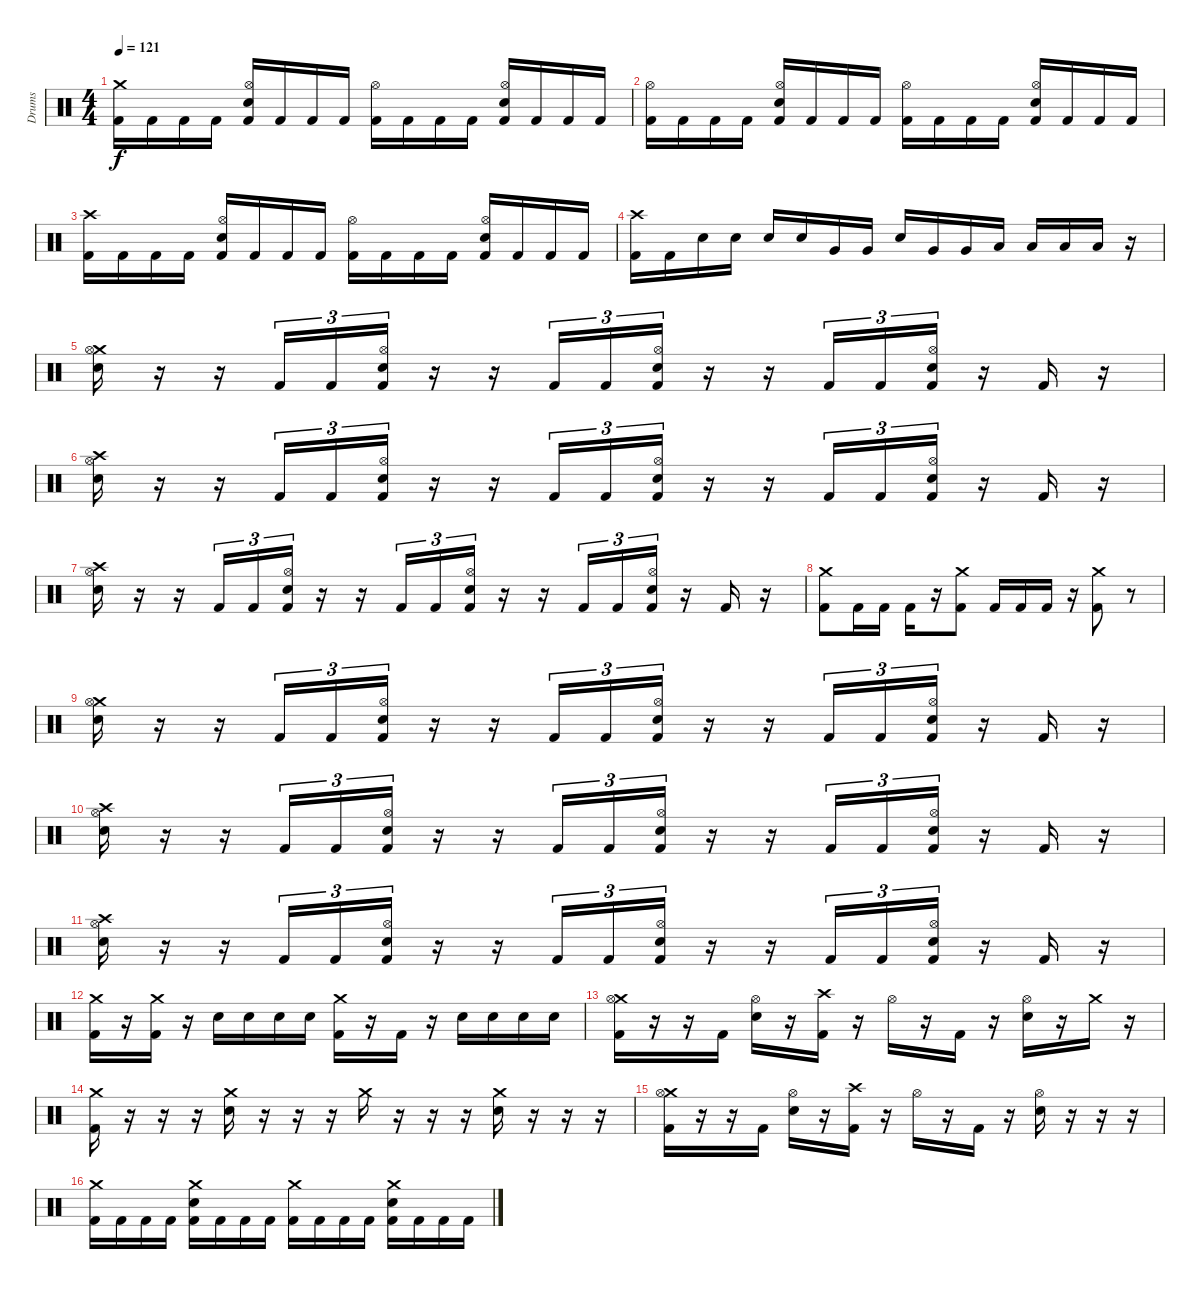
\track ("Drums" "Drums") {instrument percussion}
\staff {score}
\articulation defaults
\ts (4 4)
\tempo 121
\clef neutral
\ks c
("Crash medium (hit)" "Kick (hit) 2").16{dy f} "Kick (hit) 2".16 "Kick (hit) 2".16 "Kick (hit) 2".16 ("Hi-Hat (open)" "Electric Snare (hit)" "Kick (hit) 2").16 "Kick (hit) 2".16 "Kick (hit) 2".16 "Kick (hit) 2".16 ("Hi-Hat (open)" "Kick (hit) 2").16 "Kick (hit) 2".16 "Kick (hit) 2".16 "Kick (hit) 2".16 ("Hi-Hat (open)" "Electric Snare (hit)" "Kick (hit) 2").16 "Kick (hit) 2".16 "Kick (hit) 2".16 "Kick (hit) 2".16 |
("Hi-Hat (open)" "Kick (hit) 2").16 "Kick (hit) 2".16 "Kick (hit) 2".16 "Kick (hit) 2".16 ("Hi-Hat (open)" "Electric Snare (hit)" "Kick (hit) 2").16 "Kick (hit) 2".16 "Kick (hit) 2".16 "Kick (hit) 2".16 ("Hi-Hat (open)" "Kick (hit) 2").16 "Kick (hit) 2".16 "Kick (hit) 2".16 "Kick (hit) 2".16 ("Hi-Hat (open)" "Electric Snare (hit)" "Kick (hit) 2").16 "Kick (hit) 2".16 "Kick (hit) 2".16 "Kick (hit) 2".16 |
("Crash high (hit)" "Kick (hit) 2").16 "Kick (hit) 2".16 "Kick (hit) 2".16 "Kick (hit) 2".16 ("Hi-Hat (open)" "Electric Snare (hit)" "Kick (hit) 2").16 "Kick (hit) 2".16 "Kick (hit) 2".16 "Kick (hit) 2".16 ("Hi-Hat (open)" "Kick (hit) 2").16 "Kick (hit) 2".16 "Kick (hit) 2".16 "Kick (hit) 2".16 ("Hi-Hat (open)" "Electric Snare (hit)" "Kick (hit) 2").16 "Kick (hit) 2".16 "Kick (hit) 2".16 "Kick (hit) 2".16 |
("Crash high (hit)" "Kick (hit) 2").16 "Kick (hit) 2".16 "Electric Snare (hit)".16 "Electric Snare (hit)".16 "Electric Snare (hit)".16 "Electric Snare (hit)".16 "Very Low Tom (hit)".16 "Very Low Tom (hit)".16 "Electric Snare (hit)".16 "Very Low Tom (hit)".16 "Very Low Tom (hit)".16 "Low Tom (hit)".16 "Low Tom (hit)".16 "Low Tom (hit)".16 "Low Tom (hit)".16 r.16 |
("Crash medium (hit)" "Hi-Hat (open)" "Electric Snare (hit)").16 r.16 r.16 "Kick (hit) 2".16{tu (3 2)} "Kick (hit) 2".16{tu (3 2)} ("Hi-Hat (open)" "Electric Snare (hit)" "Kick (hit) 2").16{tu (3 2)} r.16 r.16 "Kick (hit) 2".16{tu (3 2)} "Kick (hit) 2".16{tu (3 2)} ("Hi-Hat (open)" "Electric Snare (hit)" "Kick (hit) 2").16{tu (3 2)} r.16 r.16 "Kick (hit) 2".16{tu (3 2)} "Kick (hit) 2".16{tu (3 2)} ("Hi-Hat (open)" "Electric Snare (hit)" "Kick (hit) 2").16{tu (3 2)} r.16 "Kick (hit) 2".16 r.16 |
("Crash high (hit)" "Hi-Hat (open)" "Electric Snare (hit)").16 r.16 r.16 "Kick (hit) 2".16{tu (3 2)} "Kick (hit) 2".16{tu (3 2)} ("Hi-Hat (open)" "Electric Snare (hit)" "Kick (hit) 2").16{tu (3 2)} r.16 r.16 "Kick (hit) 2".16{tu (3 2)} "Kick (hit) 2".16{tu (3 2)} ("Hi-Hat (open)" "Electric Snare (hit)" "Kick (hit) 2").16{tu (3 2)} r.16 r.16 "Kick (hit) 2".16{tu (3 2)} "Kick (hit) 2".16{tu (3 2)} ("Hi-Hat (open)" "Electric Snare (hit)" "Kick (hit) 2").16{tu (3 2)} r.16 "Kick (hit) 2".16 r.16 |
("Crash high (hit)" "Hi-Hat (open)" "Electric Snare (hit)").16 r.16 r.16 "Kick (hit) 2".16{tu (3 2)} "Kick (hit) 2".16{tu (3 2)} ("Hi-Hat (open)" "Electric Snare (hit)" "Kick (hit) 2").16{tu (3 2)} r.16 r.16 "Kick (hit) 2".16{tu (3 2)} "Kick (hit) 2".16{tu (3 2)} ("Hi-Hat (open)" "Electric Snare (hit)" "Kick (hit) 2").16{tu (3 2)} r.16 r.16 "Kick (hit) 2".16{tu (3 2)} "Kick (hit) 2".16{tu (3 2)} ("Hi-Hat (open)" "Electric Snare (hit)" "Kick (hit) 2").16{tu (3 2)} r.16 "Kick (hit) 2".16 r.16 |
("Crash medium (hit)" "Kick (hit) 2").8 "Kick (hit) 2".16 "Kick (hit) 2".16 "Kick (hit) 2".16 r.16 ("Crash medium (hit)" "Kick (hit) 2").8 "Kick (hit) 2".16 "Kick (hit) 2".16 "Kick (hit) 2".16 r.16 ("Crash medium (hit)" "Kick (hit) 2").8 r.8 |
("Crash medium (hit)" "Hi-Hat (open)" "Electric Snare (hit)").16 r.16 r.16 "Kick (hit) 2".16{tu (3 2)} "Kick (hit) 2".16{tu (3 2)} ("Hi-Hat (open)" "Electric Snare (hit)" "Kick (hit) 2").16{tu (3 2)} r.16 r.16 "Kick (hit) 2".16{tu (3 2)} "Kick (hit) 2".16{tu (3 2)} ("Hi-Hat (open)" "Electric Snare (hit)" "Kick (hit) 2").16{tu (3 2)} r.16 r.16 "Kick (hit) 2".16{tu (3 2)} "Kick (hit) 2".16{tu (3 2)} ("Hi-Hat (open)" "Electric Snare (hit)" "Kick (hit) 2").16{tu (3 2)} r.16 "Kick (hit) 2".16 r.16 |
("Crash high (hit)" "Hi-Hat (open)" "Electric Snare (hit)").16 r.16 r.16 "Kick (hit) 2".16{tu (3 2)} "Kick (hit) 2".16{tu (3 2)} ("Hi-Hat (open)" "Electric Snare (hit)" "Kick (hit) 2").16{tu (3 2)} r.16 r.16 "Kick (hit) 2".16{tu (3 2)} "Kick (hit) 2".16{tu (3 2)} ("Hi-Hat (open)" "Electric Snare (hit)" "Kick (hit) 2").16{tu (3 2)} r.16 r.16 "Kick (hit) 2".16{tu (3 2)} "Kick (hit) 2".16{tu (3 2)} ("Hi-Hat (open)" "Electric Snare (hit)" "Kick (hit) 2").16{tu (3 2)} r.16 "Kick (hit) 2".16 r.16 |
("Crash high (hit)" "Hi-Hat (open)" "Electric Snare (hit)").16 r.16 r.16 "Kick (hit) 2".16{tu (3 2)} "Kick (hit) 2".16{tu (3 2)} ("Hi-Hat (open)" "Electric Snare (hit)" "Kick (hit) 2").16{tu (3 2)} r.16 r.16 "Kick (hit) 2".16{tu (3 2)} "Kick (hit) 2".16{tu (3 2)} ("Hi-Hat (open)" "Electric Snare (hit)" "Kick (hit) 2").16{tu (3 2)} r.16 r.16 "Kick (hit) 2".16{tu (3 2)} "Kick (hit) 2".16{tu (3 2)} ("Hi-Hat (open)" "Electric Snare (hit)" "Kick (hit) 2").16{tu (3 2)} r.16 "Kick (hit) 2".16 r.16 |
("Crash medium (hit)" "Kick (hit) 2").16 r.16 ("Crash medium (hit)" "Kick (hit) 2").16 r.16 "Electric Snare (hit)".16 "Electric Snare (hit)".16 "Electric Snare (hit)".16 "Electric Snare (hit)".16 ("Crash medium (hit)" "Kick (hit) 2").16 r.16 "Kick (hit) 2".16 r.16 "Electric Snare (hit)".16 "Electric Snare (hit)".16 "Electric Snare (hit)".16 "Electric Snare (hit)".16 |
("Crash medium (hit)" "Hi-Hat (open)" "Kick (hit) 2").16 r.16 r.16 "Kick (hit) 2".16 ("Hi-Hat (open)" "Electric Snare (hit)").16 r.16 ("Crash high (hit)" "Kick (hit) 2").16 r.16 "Hi-Hat (open)".16 r.16 "Kick (hit) 2".16 r.16 ("Hi-Hat (open)" "Electric Snare (hit)").16 r.16 "Crash medium (hit)".16 r.16 |
("Crash medium (hit)" "Kick (hit) 2").16 r.16 r.16 r.16 ("Crash medium (hit)" "Electric Snare (hit)").16 r.16 r.16 r.16 "Crash medium (hit)".16 r.16 r.16 r.16 ("Crash medium (hit)" "Electric Snare (hit)").16 r.16 r.16 r.16 |
("Crash medium (hit)" "Hi-Hat (open)" "Kick (hit) 2").16 r.16 r.16 "Kick (hit) 2".16 ("Hi-Hat (open)" "Electric Snare (hit)").16 r.16 ("Crash high (hit)" "Kick (hit) 2").16 r.16 "Hi-Hat (open)".16 r.16 "Kick (hit) 2".16 r.16 ("Hi-Hat (open)" "Electric Snare (hit)").16 r.16 r.16 r.16 |
("Crash medium (hit)" "Kick (hit) 2").16 "Kick (hit) 2".16 "Kick (hit) 2".16 "Kick (hit) 2".16 ("Crash medium (hit)" "Electric Snare (hit)" "Kick (hit) 2").16 "Kick (hit) 2".16 "Kick (hit) 2".16 "Kick (hit) 2".16 ("Crash medium (hit)" "Kick (hit) 2").16 "Kick (hit) 2".16 "Kick (hit) 2".16 "Kick (hit) 2".16 ("Crash medium (hit)" "Electric Snare (hit)" "Kick (hit) 2").16 "Kick (hit) 2".16 "Kick (hit) 2".16 "Kick (hit) 2".16
